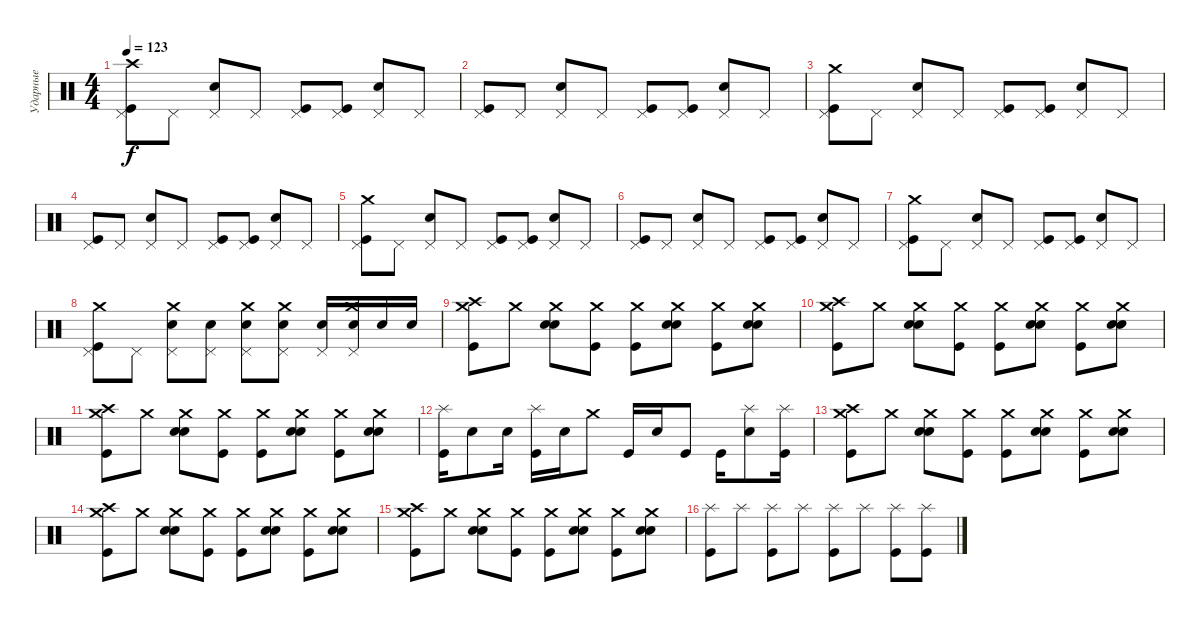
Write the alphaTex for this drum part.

\track ("Ударные" "Ударные") {instrument percussion}
\staff {score}
\articulation defaults
\ts (4 4)
\tempo 123
\clef neutral
\ks c
("Crash high (hit)" "Pedal Hi-Hat (hit)" "Kick (hit)").8{dy f} "Pedal Hi-Hat (hit)".8 ("Pedal Hi-Hat (hit)" "Snare (hit) 2").8 "Pedal Hi-Hat (hit)".8 ("Pedal Hi-Hat (hit)" "Kick (hit)").8 ("Pedal Hi-Hat (hit)" "Kick (hit)").8 ("Pedal Hi-Hat (hit)" "Snare (hit) 2").8 "Pedal Hi-Hat (hit)".8 |
("Pedal Hi-Hat (hit)" "Kick (hit)").8 "Pedal Hi-Hat (hit)".8 ("Pedal Hi-Hat (hit)" "Snare (hit) 2").8 "Pedal Hi-Hat (hit)".8 ("Pedal Hi-Hat (hit)" "Kick (hit)").8 ("Pedal Hi-Hat (hit)" "Kick (hit)").8 ("Pedal Hi-Hat (hit)" "Snare (hit) 2").8 "Pedal Hi-Hat (hit)".8 |
("Crash medium (hit)" "Pedal Hi-Hat (hit)" "Kick (hit)").8 "Pedal Hi-Hat (hit)".8 ("Pedal Hi-Hat (hit)" "Snare (hit) 2").8 "Pedal Hi-Hat (hit)".8 ("Pedal Hi-Hat (hit)" "Kick (hit)").8 ("Pedal Hi-Hat (hit)" "Kick (hit)").8 ("Pedal Hi-Hat (hit)" "Snare (hit) 2").8 "Pedal Hi-Hat (hit)".8 |
("Pedal Hi-Hat (hit)" "Kick (hit)").8 "Pedal Hi-Hat (hit)".8 ("Pedal Hi-Hat (hit)" "Snare (hit) 2").8 "Pedal Hi-Hat (hit)".8 ("Pedal Hi-Hat (hit)" "Kick (hit)").8 ("Pedal Hi-Hat (hit)" "Kick (hit)").8 ("Pedal Hi-Hat (hit)" "Snare (hit) 2").8 "Pedal Hi-Hat (hit)".8 |
("Crash medium (hit)" "Pedal Hi-Hat (hit)" "Kick (hit)").8 "Pedal Hi-Hat (hit)".8 ("Pedal Hi-Hat (hit)" "Snare (hit) 2").8 "Pedal Hi-Hat (hit)".8 ("Pedal Hi-Hat (hit)" "Kick (hit)").8 ("Pedal Hi-Hat (hit)" "Kick (hit)").8 ("Pedal Hi-Hat (hit)" "Snare (hit) 2").8 "Pedal Hi-Hat (hit)".8 |
("Pedal Hi-Hat (hit)" "Kick (hit)").8 "Pedal Hi-Hat (hit)".8 ("Pedal Hi-Hat (hit)" "Snare (hit) 2").8 "Pedal Hi-Hat (hit)".8 ("Pedal Hi-Hat (hit)" "Kick (hit)").8 ("Pedal Hi-Hat (hit)" "Kick (hit)").8 ("Pedal Hi-Hat (hit)" "Snare (hit) 2").8 "Pedal Hi-Hat (hit)".8 |
("Crash medium (hit)" "Pedal Hi-Hat (hit)" "Kick (hit)").8 "Pedal Hi-Hat (hit)".8 ("Pedal Hi-Hat (hit)" "Snare (hit) 2").8 "Pedal Hi-Hat (hit)".8 ("Pedal Hi-Hat (hit)" "Kick (hit)").8 ("Pedal Hi-Hat (hit)" "Kick (hit)").8 ("Pedal Hi-Hat (hit)" "Snare (hit) 2").8 "Pedal Hi-Hat (hit)".8 |
("Crash medium (hit)" "Pedal Hi-Hat (hit)" "Kick (hit)").8 "Pedal Hi-Hat (hit)".8 ("Crash medium (hit)" "Pedal Hi-Hat (hit)" "Snare (hit) 2").8 ("Pedal Hi-Hat (hit)" "Electric Snare (hit)").8 ("Crash medium (hit)" "Pedal Hi-Hat (hit)" "Snare (hit) 2").8 ("Crash medium (hit)" "Pedal Hi-Hat (hit)" "Electric Snare (hit)").8 ("Pedal Hi-Hat (hit)" "Snare (hit) 2").16 ("Crash medium (hit)" "Pedal Hi-Hat (hit)" "Electric Snare (hit)").16 "Snare (hit) 2".16 "Electric Snare (hit)".16 |
("Crash medium (hit)" "Crash high (hit)" "Kick (hit)").8 "Crash medium (hit)".8 ("Crash medium (hit)" "Snare (hit) 2" "Snare (hit) 2").8 ("Crash medium (hit)" "Kick (hit)").8 ("Crash medium (hit)" "Kick (hit)").8 ("Crash medium (hit)" "Snare (hit) 2" "Snare (hit) 2").8 ("Crash medium (hit)" "Kick (hit)").8 ("Crash medium (hit)" "Electric Snare (hit)" "Electric Snare (hit)").8 |
("Crash medium (hit)" "Crash high (hit)" "Kick (hit)").8 "Crash medium (hit)".8 ("Crash medium (hit)" "Snare (hit) 2" "Snare (hit) 2").8 ("Crash medium (hit)" "Kick (hit)").8 ("Crash medium (hit)" "Kick (hit)").8 ("Crash medium (hit)" "Snare (hit) 2" "Snare (hit) 2").8 ("Crash medium (hit)" "Kick (hit)").8 ("Crash medium (hit)" "Electric Snare (hit)" "Electric Snare (hit)").8 |
("Crash medium (hit)" "Crash high (hit)" "Kick (hit)").8 "Crash medium (hit)".8 ("Crash medium (hit)" "Snare (hit) 2" "Snare (hit) 2").8 ("Crash medium (hit)" "Kick (hit)").8 ("Crash medium (hit)" "Kick (hit)").8 ("Crash medium (hit)" "Snare (hit) 2" "Snare (hit) 2").8 ("Crash medium (hit)" "Kick (hit)").8 ("Crash medium (hit)" "Electric Snare (hit)" "Electric Snare (hit)").8 |
("Splash (hit)" "Kick (hit)").16 "Snare (hit) 2".8 "Snare (hit) 2".16 ("Splash (hit)" "Kick (hit)").16 "Snare (hit) 2".16 "Crash medium (hit)".8 "Kick (hit)".16 "Snare (hit) 2".16 "Kick (hit)".8 "Kick (hit)".16 ("Splash (hit)" "Snare (hit) 2").8 ("Splash (hit)" "Kick (hit)").16 |
("Crash medium (hit)" "Crash high (hit)" "Kick (hit)").8 "Crash medium (hit)".8 ("Crash medium (hit)" "Snare (hit) 2" "Snare (hit) 2").8 ("Crash medium (hit)" "Kick (hit)").8 ("Crash medium (hit)" "Kick (hit)").8 ("Crash medium (hit)" "Snare (hit) 2" "Snare (hit) 2").8 ("Crash medium (hit)" "Kick (hit)").8 ("Crash medium (hit)" "Electric Snare (hit)" "Electric Snare (hit)").8 |
("Crash medium (hit)" "Crash high (hit)" "Kick (hit)").8 "Crash medium (hit)".8 ("Crash medium (hit)" "Snare (hit) 2" "Snare (hit) 2").8 ("Crash medium (hit)" "Kick (hit)").8 ("Crash medium (hit)" "Kick (hit)").8 ("Crash medium (hit)" "Snare (hit) 2" "Snare (hit) 2").8 ("Crash medium (hit)" "Kick (hit)").8 ("Crash medium (hit)" "Electric Snare (hit)" "Electric Snare (hit)").8 |
("Crash medium (hit)" "Crash high (hit)" "Kick (hit)").8 "Crash medium (hit)".8 ("Crash medium (hit)" "Snare (hit) 2" "Snare (hit) 2").8 ("Crash medium (hit)" "Kick (hit)").8 ("Crash medium (hit)" "Kick (hit)").8 ("Crash medium (hit)" "Snare (hit) 2" "Snare (hit) 2").8 ("Crash medium (hit)" "Kick (hit)").8 ("Crash medium (hit)" "Electric Snare (hit)" "Electric Snare (hit)").8 |
("Splash (hit)" "Kick (hit)").8 "Splash (hit)".8 ("Splash (hit)" "Kick (hit)").8 "Splash (hit)".8 ("Splash (hit)" "Kick (hit)").8 "Splash (hit)".8 ("Splash (hit)" "Kick (hit)").8 ("Splash (hit)" "Kick (hit)").8
